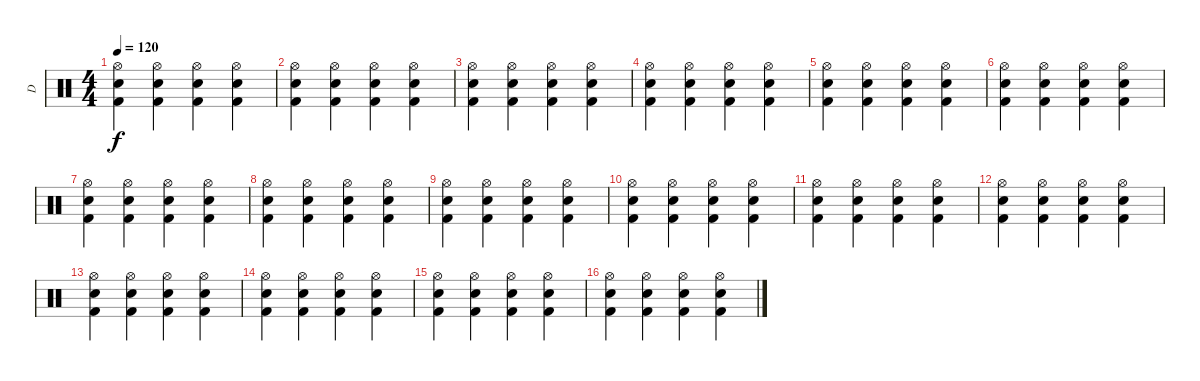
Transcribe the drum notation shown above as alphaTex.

\track ("D" "D") {instrument percussion}
\staff {score}
\articulation defaults
\ts (4 4)
\tempo 120
\clef neutral
\ks c
("Hi-Hat (open)" "Electric Snare (hit)" "Kick (hit) 2").4{dy f} ("Hi-Hat (open)" "Electric Snare (hit)" "Kick (hit) 2").4 ("Hi-Hat (open)" "Electric Snare (hit)" "Kick (hit) 2").4 ("Hi-Hat (open)" "Electric Snare (hit)" "Kick (hit) 2").4 |
("Hi-Hat (open)" "Electric Snare (hit)" "Kick (hit) 2").4 ("Hi-Hat (open)" "Electric Snare (hit)" "Kick (hit) 2").4 ("Hi-Hat (open)" "Electric Snare (hit)" "Kick (hit) 2").4 ("Hi-Hat (open)" "Electric Snare (hit)" "Kick (hit) 2").4 |
("Hi-Hat (open)" "Electric Snare (hit)" "Kick (hit) 2").4 ("Hi-Hat (open)" "Electric Snare (hit)" "Kick (hit) 2").4 ("Hi-Hat (open)" "Electric Snare (hit)" "Kick (hit) 2").4 ("Hi-Hat (open)" "Electric Snare (hit)" "Kick (hit) 2").4 |
("Hi-Hat (open)" "Electric Snare (hit)" "Kick (hit) 2").4 ("Hi-Hat (open)" "Electric Snare (hit)" "Kick (hit) 2").4 ("Hi-Hat (open)" "Electric Snare (hit)" "Kick (hit) 2").4 ("Hi-Hat (open)" "Electric Snare (hit)" "Kick (hit) 2").4 |
("Hi-Hat (open)" "Electric Snare (hit)" "Kick (hit) 2").4 ("Hi-Hat (open)" "Electric Snare (hit)" "Kick (hit) 2").4 ("Hi-Hat (open)" "Electric Snare (hit)" "Kick (hit) 2").4 ("Hi-Hat (open)" "Electric Snare (hit)" "Kick (hit) 2").4 |
("Hi-Hat (open)" "Electric Snare (hit)" "Kick (hit) 2").4 ("Hi-Hat (open)" "Electric Snare (hit)" "Kick (hit) 2").4 ("Hi-Hat (open)" "Electric Snare (hit)" "Kick (hit) 2").4 ("Hi-Hat (open)" "Electric Snare (hit)" "Kick (hit) 2").4 |
("Hi-Hat (open)" "Electric Snare (hit)" "Kick (hit) 2").4 ("Hi-Hat (open)" "Electric Snare (hit)" "Kick (hit) 2").4 ("Hi-Hat (open)" "Electric Snare (hit)" "Kick (hit) 2").4 ("Hi-Hat (open)" "Electric Snare (hit)" "Kick (hit) 2").4 |
("Hi-Hat (open)" "Electric Snare (hit)" "Kick (hit) 2").4 ("Hi-Hat (open)" "Electric Snare (hit)" "Kick (hit) 2").4 ("Hi-Hat (open)" "Electric Snare (hit)" "Kick (hit) 2").4 ("Hi-Hat (open)" "Electric Snare (hit)" "Kick (hit) 2").4 |
("Hi-Hat (open)" "Electric Snare (hit)" "Kick (hit) 2").4 ("Hi-Hat (open)" "Electric Snare (hit)" "Kick (hit) 2").4 ("Hi-Hat (open)" "Electric Snare (hit)" "Kick (hit) 2").4 ("Hi-Hat (open)" "Electric Snare (hit)" "Kick (hit) 2").4 |
("Hi-Hat (open)" "Electric Snare (hit)" "Kick (hit) 2").4 ("Hi-Hat (open)" "Electric Snare (hit)" "Kick (hit) 2").4 ("Hi-Hat (open)" "Electric Snare (hit)" "Kick (hit) 2").4 ("Hi-Hat (open)" "Electric Snare (hit)" "Kick (hit) 2").4 |
("Hi-Hat (open)" "Electric Snare (hit)" "Kick (hit) 2").4 ("Hi-Hat (open)" "Electric Snare (hit)" "Kick (hit) 2").4 ("Hi-Hat (open)" "Electric Snare (hit)" "Kick (hit) 2").4 ("Hi-Hat (open)" "Electric Snare (hit)" "Kick (hit) 2").4 |
("Hi-Hat (open)" "Electric Snare (hit)" "Kick (hit) 2").4 ("Hi-Hat (open)" "Electric Snare (hit)" "Kick (hit) 2").4 ("Hi-Hat (open)" "Electric Snare (hit)" "Kick (hit) 2").4 ("Hi-Hat (open)" "Electric Snare (hit)" "Kick (hit) 2").4 |
("Hi-Hat (open)" "Electric Snare (hit)" "Kick (hit) 2").4 ("Hi-Hat (open)" "Electric Snare (hit)" "Kick (hit) 2").4 ("Hi-Hat (open)" "Electric Snare (hit)" "Kick (hit) 2").4 ("Hi-Hat (open)" "Electric Snare (hit)" "Kick (hit) 2").4 |
("Hi-Hat (open)" "Electric Snare (hit)" "Kick (hit) 2").4 ("Hi-Hat (open)" "Electric Snare (hit)" "Kick (hit) 2").4 ("Hi-Hat (open)" "Electric Snare (hit)" "Kick (hit) 2").4 ("Hi-Hat (open)" "Electric Snare (hit)" "Kick (hit) 2").4 |
("Hi-Hat (open)" "Electric Snare (hit)" "Kick (hit) 2").4 ("Hi-Hat (open)" "Electric Snare (hit)" "Kick (hit) 2").4 ("Hi-Hat (open)" "Electric Snare (hit)" "Kick (hit) 2").4 ("Hi-Hat (open)" "Electric Snare (hit)" "Kick (hit) 2").4 |
("Hi-Hat (open)" "Electric Snare (hit)" "Kick (hit) 2").4 ("Hi-Hat (open)" "Electric Snare (hit)" "Kick (hit) 2").4 ("Hi-Hat (open)" "Electric Snare (hit)" "Kick (hit) 2").4 ("Hi-Hat (open)" "Electric Snare (hit)" "Kick (hit) 2").4
